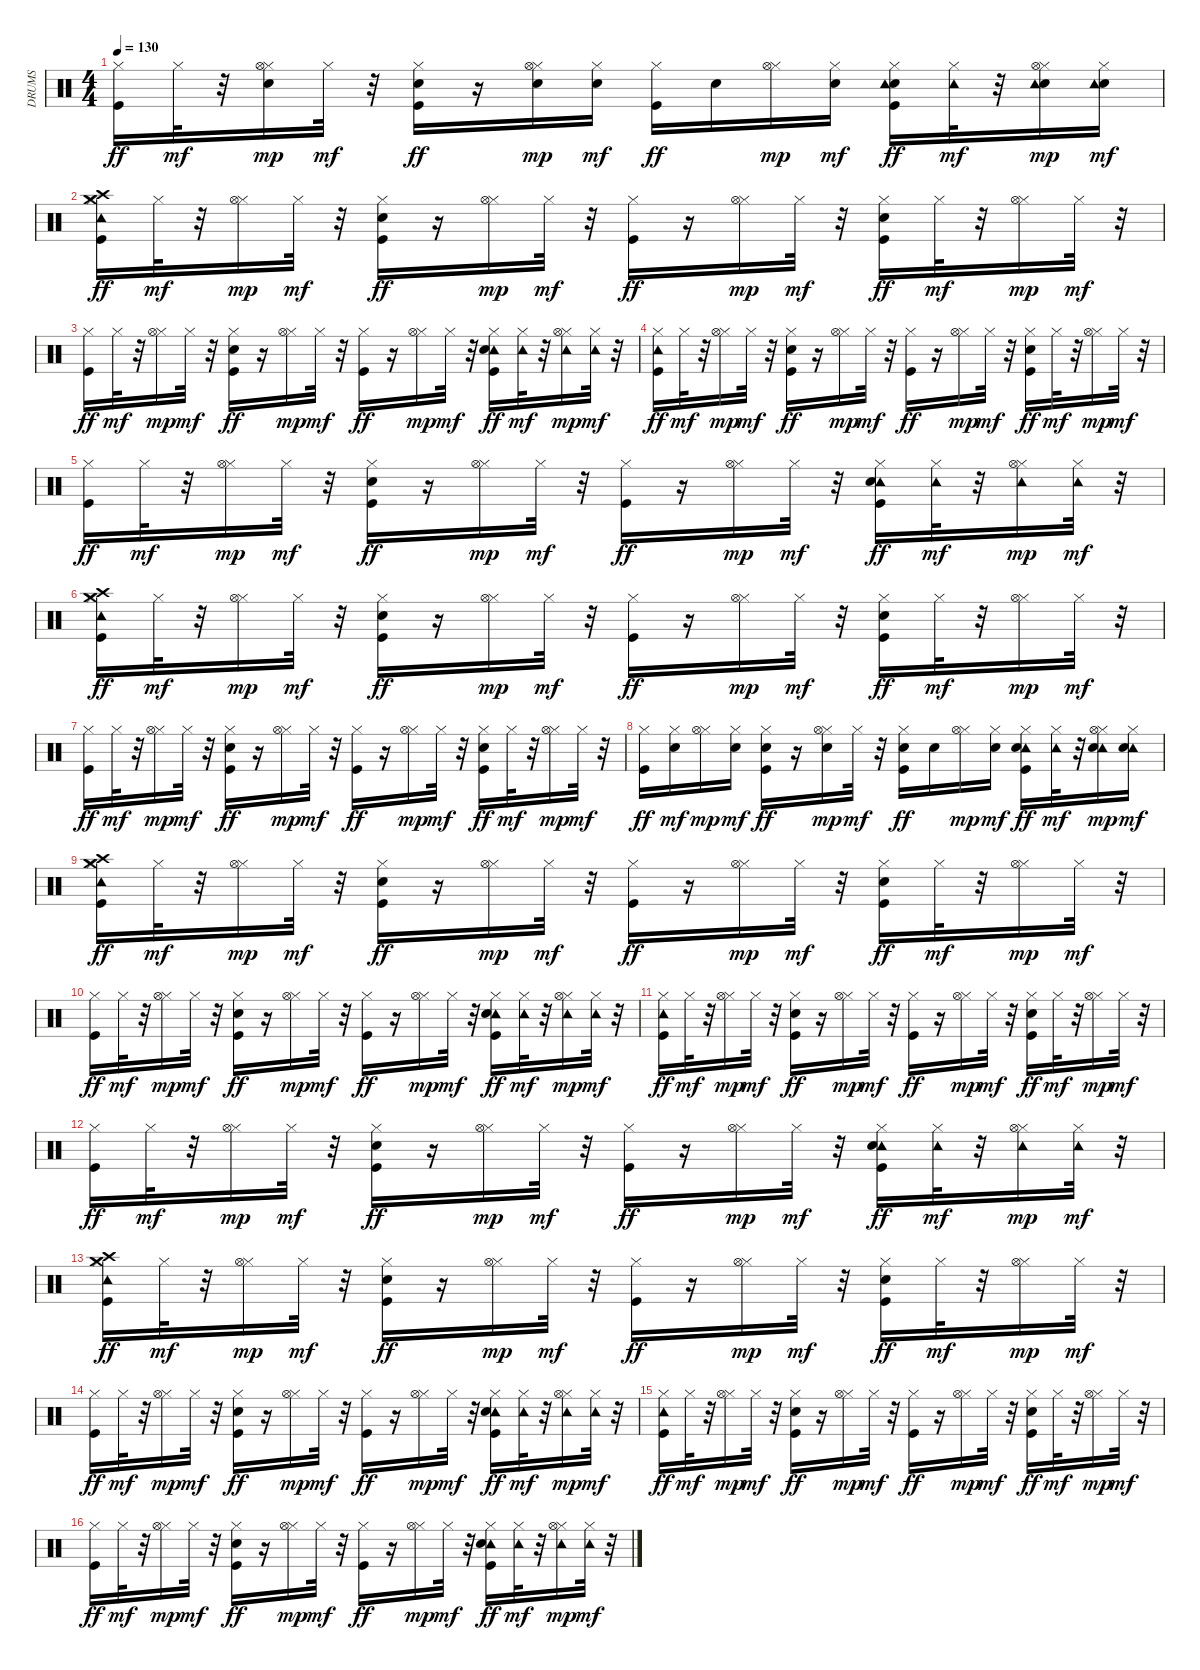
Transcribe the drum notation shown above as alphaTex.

\track ("DRUMS" "DRUMS") {instrument percussion}
\staff {score}
\articulation defaults
\ts (4 4)
\tempo 130
\clef neutral
\ks c
("Hi-Hat (closed)" "Kick (hit)").16{dy ff} "Hi-Hat (closed)".32{dy mf} r.32 ("Electric Snare (hit)" "Hi-Hat (closed)" "Hi-Hat (open)").16{dy mp} "Hi-Hat (closed)".32{dy mf} r.32 ("Electric Snare (hit)" "Hi-Hat (closed)" "Kick (hit)").16{dy ff} r.16 ("Electric Snare (hit)" "Hi-Hat (closed)" "Hi-Hat (open)").16{dy mp} ("Electric Snare (hit)" "Hi-Hat (closed)").16{dy mf} ("Hi-Hat (closed)" "Kick (hit)").16{dy ff} "Electric Snare (hit)".16 ("Hi-Hat (closed)" "Hi-Hat (open)").16{dy mp} ("Electric Snare (hit)" "Hi-Hat (closed)").16{dy mf} ("Electric Snare (hit)" "Hi-Hat (closed)" "Tambourine (hit)" "Kick (hit)").16{dy ff} ("Hi-Hat (closed)" "Tambourine (hit)").32{dy mf} r.32 ("Electric Snare (hit)" "Hi-Hat (closed)" "Tambourine (hit)" "Hi-Hat (open)").16{dy mp} ("Electric Snare (hit)" "Hi-Hat (closed)" "Tambourine (hit)").16{dy mf} |
("Hi-Hat (closed)" "Tambourine (hit)" "Crash high (hit)" "Crash medium (hit)" "Kick (hit)").16{dy ff} "Hi-Hat (closed)".32{dy mf} r.32 ("Hi-Hat (closed)" "Hi-Hat (open)").16{dy mp} "Hi-Hat (closed)".32{dy mf} r.32 ("Hi-Hat (closed)" "Electric Snare (hit)" "Kick (hit)").16{dy ff} r.16 ("Hi-Hat (closed)" "Hi-Hat (open)").16{dy mp} "Hi-Hat (closed)".32{dy mf} r.32 ("Hi-Hat (closed)" "Kick (hit)").16{dy ff} r.16 ("Hi-Hat (closed)" "Hi-Hat (open)").16{dy mp} "Hi-Hat (closed)".32{dy mf} r.32 ("Hi-Hat (closed)" "Electric Snare (hit)" "Kick (hit)").16{dy ff} "Hi-Hat (closed)".32{dy mf} r.32 ("Hi-Hat (closed)" "Hi-Hat (open)").16{dy mp} "Hi-Hat (closed)".32{dy mf} r.32 |
("Hi-Hat (closed)" "Kick (hit)").16{dy ff} "Hi-Hat (closed)".32{dy mf} r.32 ("Hi-Hat (closed)" "Hi-Hat (open)").16{dy mp} "Hi-Hat (closed)".32{dy mf} r.32 ("Hi-Hat (closed)" "Electric Snare (hit)" "Kick (hit)").16{dy ff} r.16 ("Hi-Hat (closed)" "Hi-Hat (open)").16{dy mp} "Hi-Hat (closed)".32{dy mf} r.32 ("Hi-Hat (closed)" "Kick (hit)").16{dy ff} r.16 ("Hi-Hat (closed)" "Hi-Hat (open)").16{dy mp} "Hi-Hat (closed)".32{dy mf} r.32 ("Hi-Hat (closed)" "Tambourine (hit)" "Electric Snare (hit)" "Kick (hit)").16{dy ff} ("Hi-Hat (closed)" "Tambourine (hit)").32{dy mf} r.32 ("Hi-Hat (closed)" "Tambourine (hit)" "Hi-Hat (open)").16{dy mp} ("Hi-Hat (closed)" "Tambourine (hit)").32{dy mf} r.32 |
("Hi-Hat (closed)" "Tambourine (hit)" "Kick (hit)").16{dy ff} "Hi-Hat (closed)".32{dy mf} r.32 ("Hi-Hat (closed)" "Hi-Hat (open)").16{dy mp} "Hi-Hat (closed)".32{dy mf} r.32 ("Hi-Hat (closed)" "Electric Snare (hit)" "Kick (hit)").16{dy ff} r.16 ("Hi-Hat (closed)" "Hi-Hat (open)").16{dy mp} "Hi-Hat (closed)".32{dy mf} r.32 ("Hi-Hat (closed)" "Kick (hit)").16{dy ff} r.16 ("Hi-Hat (closed)" "Hi-Hat (open)").16{dy mp} "Hi-Hat (closed)".32{dy mf} r.32 ("Hi-Hat (closed)" "Electric Snare (hit)" "Kick (hit)").16{dy ff} "Hi-Hat (closed)".32{dy mf} r.32 ("Hi-Hat (closed)" "Hi-Hat (open)").16{dy mp} "Hi-Hat (closed)".32{dy mf} r.32 |
("Hi-Hat (closed)" "Kick (hit)").16{dy ff} "Hi-Hat (closed)".32{dy mf} r.32 ("Hi-Hat (closed)" "Hi-Hat (open)").16{dy mp} "Hi-Hat (closed)".32{dy mf} r.32 ("Hi-Hat (closed)" "Electric Snare (hit)" "Kick (hit)").16{dy ff} r.16 ("Hi-Hat (closed)" "Hi-Hat (open)").16{dy mp} "Hi-Hat (closed)".32{dy mf} r.32 ("Hi-Hat (closed)" "Kick (hit)").16{dy ff} r.16 ("Hi-Hat (closed)" "Hi-Hat (open)").16{dy mp} "Hi-Hat (closed)".32{dy mf} r.32 ("Hi-Hat (closed)" "Tambourine (hit)" "Electric Snare (hit)" "Kick (hit)").16{dy ff} ("Hi-Hat (closed)" "Tambourine (hit)").32{dy mf} r.32 ("Hi-Hat (closed)" "Tambourine (hit)" "Hi-Hat (open)").16{dy mp} ("Hi-Hat (closed)" "Tambourine (hit)").32{dy mf} r.32 |
("Hi-Hat (closed)" "Tambourine (hit)" "Crash high (hit)" "Crash medium (hit)" "Kick (hit)").16{dy ff} "Hi-Hat (closed)".32{dy mf} r.32 ("Hi-Hat (closed)" "Hi-Hat (open)").16{dy mp} "Hi-Hat (closed)".32{dy mf} r.32 ("Hi-Hat (closed)" "Electric Snare (hit)" "Kick (hit)").16{dy ff} r.16 ("Hi-Hat (closed)" "Hi-Hat (open)").16{dy mp} "Hi-Hat (closed)".32{dy mf} r.32 ("Hi-Hat (closed)" "Kick (hit)").16{dy ff} r.16 ("Hi-Hat (closed)" "Hi-Hat (open)").16{dy mp} "Hi-Hat (closed)".32{dy mf} r.32 ("Hi-Hat (closed)" "Electric Snare (hit)" "Kick (hit)").16{dy ff} "Hi-Hat (closed)".32{dy mf} r.32 ("Hi-Hat (closed)" "Hi-Hat (open)").16{dy mp} "Hi-Hat (closed)".32{dy mf} r.32 |
("Hi-Hat (closed)" "Kick (hit)").16{dy ff} "Hi-Hat (closed)".32{dy mf} r.32 ("Hi-Hat (closed)" "Hi-Hat (open)").16{dy mp} "Hi-Hat (closed)".32{dy mf} r.32 ("Hi-Hat (closed)" "Electric Snare (hit)" "Kick (hit)").16{dy ff} r.16 ("Hi-Hat (closed)" "Hi-Hat (open)").16{dy mp} "Hi-Hat (closed)".32{dy mf} r.32 ("Hi-Hat (closed)" "Kick (hit)").16{dy ff} r.16 ("Hi-Hat (closed)" "Hi-Hat (open)").16{dy mp} "Hi-Hat (closed)".32{dy mf} r.32 ("Hi-Hat (closed)" "Electric Snare (hit)" "Kick (hit)").16{dy ff} "Hi-Hat (closed)".32{dy mf} r.32 ("Hi-Hat (closed)" "Hi-Hat (open)").16{dy mp} "Hi-Hat (closed)".32{dy mf} r.32 |
("Hi-Hat (closed)" "Kick (hit)").16{dy ff} ("Electric Snare (hit)" "Hi-Hat (closed)").16{dy mf} ("Hi-Hat (closed)" "Hi-Hat (open)").16{dy mp} ("Electric Snare (hit)" "Hi-Hat (closed)").16{dy mf} ("Electric Snare (hit)" "Hi-Hat (closed)" "Kick (hit)").16{dy ff} r.16 ("Electric Snare (hit)" "Hi-Hat (closed)" "Hi-Hat (open)").16{dy mp} "Hi-Hat (closed)".32{dy mf} r.32 ("Electric Snare (hit)" "Hi-Hat (closed)" "Kick (hit)").16{dy ff} "Electric Snare (hit)".16 ("Hi-Hat (closed)" "Hi-Hat (open)").16{dy mp} ("Electric Snare (hit)" "Hi-Hat (closed)").16{dy mf} ("Tambourine (hit)" "Electric Snare (hit)" "Hi-Hat (closed)" "Kick (hit)").16{dy ff} ("Tambourine (hit)" "Hi-Hat (closed)").32{dy mf} r.32 ("Tambourine (hit)" "Electric Snare (hit)" "Hi-Hat (closed)" "Hi-Hat (open)").16{dy mp} ("Tambourine (hit)" "Electric Snare (hit)" "Hi-Hat (closed)").16{dy mf} |
("Tambourine (hit)" "Crash high (hit)" "Crash medium (hit)" "Hi-Hat (closed)" "Kick (hit)").16{dy ff} "Hi-Hat (closed)".32{dy mf} r.32 ("Hi-Hat (closed)" "Hi-Hat (open)").16{dy mp} "Hi-Hat (closed)".32{dy mf} r.32 ("Electric Snare (hit)" "Hi-Hat (closed)" "Kick (hit)").16{dy ff} r.16 ("Hi-Hat (closed)" "Hi-Hat (open)").16{dy mp} "Hi-Hat (closed)".32{dy mf} r.32 ("Hi-Hat (closed)" "Kick (hit)").16{dy ff} r.16 ("Hi-Hat (closed)" "Hi-Hat (open)").16{dy mp} "Hi-Hat (closed)".32{dy mf} r.32 ("Electric Snare (hit)" "Hi-Hat (closed)" "Kick (hit)").16{dy ff} "Hi-Hat (closed)".32{dy mf} r.32 ("Hi-Hat (closed)" "Hi-Hat (open)").16{dy mp} "Hi-Hat (closed)".32{dy mf} r.32 |
("Hi-Hat (closed)" "Kick (hit)").16{dy ff} "Hi-Hat (closed)".32{dy mf} r.32 ("Hi-Hat (closed)" "Hi-Hat (open)").16{dy mp} "Hi-Hat (closed)".32{dy mf} r.32 ("Electric Snare (hit)" "Hi-Hat (closed)" "Kick (hit)").16{dy ff} r.16 ("Hi-Hat (closed)" "Hi-Hat (open)").16{dy mp} "Hi-Hat (closed)".32{dy mf} r.32 ("Hi-Hat (closed)" "Kick (hit)").16{dy ff} r.16 ("Hi-Hat (closed)" "Hi-Hat (open)").16{dy mp} "Hi-Hat (closed)".32{dy mf} r.32 ("Tambourine (hit)" "Electric Snare (hit)" "Hi-Hat (closed)" "Kick (hit)").16{dy ff} ("Tambourine (hit)" "Hi-Hat (closed)").32{dy mf} r.32 ("Tambourine (hit)" "Hi-Hat (closed)" "Hi-Hat (open)").16{dy mp} ("Tambourine (hit)" "Hi-Hat (closed)").32{dy mf} r.32 |
("Tambourine (hit)" "Hi-Hat (closed)" "Kick (hit)").16{dy ff} "Hi-Hat (closed)".32{dy mf} r.32 ("Hi-Hat (closed)" "Hi-Hat (open)").16{dy mp} "Hi-Hat (closed)".32{dy mf} r.32 ("Electric Snare (hit)" "Hi-Hat (closed)" "Kick (hit)").16{dy ff} r.16 ("Hi-Hat (closed)" "Hi-Hat (open)").16{dy mp} "Hi-Hat (closed)".32{dy mf} r.32 ("Hi-Hat (closed)" "Kick (hit)").16{dy ff} r.16 ("Hi-Hat (closed)" "Hi-Hat (open)").16{dy mp} "Hi-Hat (closed)".32{dy mf} r.32 ("Electric Snare (hit)" "Hi-Hat (closed)" "Kick (hit)").16{dy ff} "Hi-Hat (closed)".32{dy mf} r.32 ("Hi-Hat (closed)" "Hi-Hat (open)").16{dy mp} "Hi-Hat (closed)".32{dy mf} r.32 |
("Hi-Hat (closed)" "Kick (hit)").16{dy ff} "Hi-Hat (closed)".32{dy mf} r.32 ("Hi-Hat (closed)" "Hi-Hat (open)").16{dy mp} "Hi-Hat (closed)".32{dy mf} r.32 ("Electric Snare (hit)" "Hi-Hat (closed)" "Kick (hit)").16{dy ff} r.16 ("Hi-Hat (closed)" "Hi-Hat (open)").16{dy mp} "Hi-Hat (closed)".32{dy mf} r.32 ("Hi-Hat (closed)" "Kick (hit)").16{dy ff} r.16 ("Hi-Hat (closed)" "Hi-Hat (open)").16{dy mp} "Hi-Hat (closed)".32{dy mf} r.32 ("Tambourine (hit)" "Electric Snare (hit)" "Hi-Hat (closed)" "Kick (hit)").16{dy ff} ("Tambourine (hit)" "Hi-Hat (closed)").32{dy mf} r.32 ("Tambourine (hit)" "Hi-Hat (closed)" "Hi-Hat (open)").16{dy mp} ("Tambourine (hit)" "Hi-Hat (closed)").32{dy mf} r.32 |
("Hi-Hat (closed)" "Tambourine (hit)" "Crash high (hit)" "Crash medium (hit)" "Kick (hit)").16{dy ff} "Hi-Hat (closed)".32{dy mf} r.32 ("Hi-Hat (closed)" "Hi-Hat (open)").16{dy mp} "Hi-Hat (closed)".32{dy mf} r.32 ("Hi-Hat (closed)" "Electric Snare (hit)" "Kick (hit)").16{dy ff} r.16 ("Hi-Hat (closed)" "Hi-Hat (open)").16{dy mp} "Hi-Hat (closed)".32{dy mf} r.32 ("Hi-Hat (closed)" "Kick (hit)").16{dy ff} r.16 ("Hi-Hat (closed)" "Hi-Hat (open)").16{dy mp} "Hi-Hat (closed)".32{dy mf} r.32 ("Hi-Hat (closed)" "Electric Snare (hit)" "Kick (hit)").16{dy ff} "Hi-Hat (closed)".32{dy mf} r.32 ("Hi-Hat (closed)" "Hi-Hat (open)").16{dy mp} "Hi-Hat (closed)".32{dy mf} r.32 |
("Hi-Hat (closed)" "Kick (hit)").16{dy ff} "Hi-Hat (closed)".32{dy mf} r.32 ("Hi-Hat (closed)" "Hi-Hat (open)").16{dy mp} "Hi-Hat (closed)".32{dy mf} r.32 ("Hi-Hat (closed)" "Electric Snare (hit)" "Kick (hit)").16{dy ff} r.16 ("Hi-Hat (closed)" "Hi-Hat (open)").16{dy mp} "Hi-Hat (closed)".32{dy mf} r.32 ("Hi-Hat (closed)" "Kick (hit)").16{dy ff} r.16 ("Hi-Hat (closed)" "Hi-Hat (open)").16{dy mp} "Hi-Hat (closed)".32{dy mf} r.32 ("Hi-Hat (closed)" "Tambourine (hit)" "Electric Snare (hit)" "Kick (hit)").16{dy ff} ("Hi-Hat (closed)" "Tambourine (hit)").32{dy mf} r.32 ("Hi-Hat (closed)" "Tambourine (hit)" "Hi-Hat (open)").16{dy mp} ("Hi-Hat (closed)" "Tambourine (hit)").32{dy mf} r.32 |
("Hi-Hat (closed)" "Tambourine (hit)" "Kick (hit)").16{dy ff} "Hi-Hat (closed)".32{dy mf} r.32 ("Hi-Hat (closed)" "Hi-Hat (open)").16{dy mp} "Hi-Hat (closed)".32{dy mf} r.32 ("Hi-Hat (closed)" "Electric Snare (hit)" "Kick (hit)").16{dy ff} r.16 ("Hi-Hat (closed)" "Hi-Hat (open)").16{dy mp} "Hi-Hat (closed)".32{dy mf} r.32 ("Hi-Hat (closed)" "Kick (hit)").16{dy ff} r.16 ("Hi-Hat (closed)" "Hi-Hat (open)").16{dy mp} "Hi-Hat (closed)".32{dy mf} r.32 ("Hi-Hat (closed)" "Electric Snare (hit)" "Kick (hit)").16{dy ff} "Hi-Hat (closed)".32{dy mf} r.32 ("Hi-Hat (closed)" "Hi-Hat (open)").16{dy mp} "Hi-Hat (closed)".32{dy mf} r.32 |
("Hi-Hat (closed)" "Kick (hit)").16{dy ff} "Hi-Hat (closed)".32{dy mf} r.32 ("Hi-Hat (closed)" "Hi-Hat (open)").16{dy mp} "Hi-Hat (closed)".32{dy mf} r.32 ("Hi-Hat (closed)" "Electric Snare (hit)" "Kick (hit)").16{dy ff} r.16 ("Hi-Hat (closed)" "Hi-Hat (open)").16{dy mp} "Hi-Hat (closed)".32{dy mf} r.32 ("Hi-Hat (closed)" "Kick (hit)").16{dy ff} r.16 ("Hi-Hat (closed)" "Hi-Hat (open)").16{dy mp} "Hi-Hat (closed)".32{dy mf} r.32 ("Hi-Hat (closed)" "Tambourine (hit)" "Electric Snare (hit)" "Kick (hit)").16{dy ff} ("Hi-Hat (closed)" "Tambourine (hit)").32{dy mf} r.32 ("Hi-Hat (closed)" "Tambourine (hit)" "Hi-Hat (open)").16{dy mp} ("Hi-Hat (closed)" "Tambourine (hit)").32{dy mf} r.32
